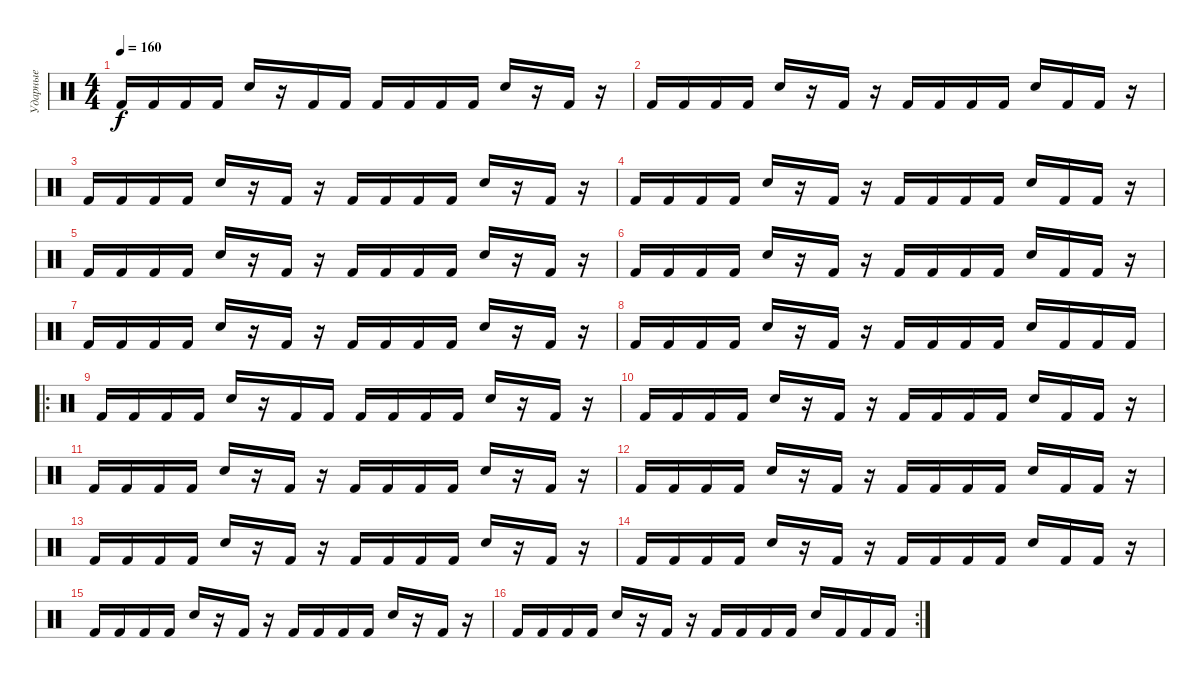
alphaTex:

\track ("Ударные" "Ударные") {instrument percussion}
\staff {score}
\articulation defaults
\ts (4 4)
\tempo 160
\clef neutral
\ks c "Kick (hit) 2".16{dy f} "Kick (hit) 2".16 "Kick (hit) 2".16 "Kick (hit) 2".16 "Electric Snare (hit)".16
r.16 "Kick (hit) 2".16 "Kick (hit) 2".16 "Kick (hit) 2".16 "Kick (hit) 2".16 "Kick (hit) 2".16 "Kick (hit) 2".16 "Electric Snare (hit)".16 r.16 "Kick (hit) 2".16 r.16 |
"Kick (hit) 2".16 "Kick (hit) 2".16 "Kick (hit) 2".16 "Kick (hit) 2".16 "Electric Snare (hit)".16 r.16 "Kick (hit) 2".16 r.16 "Kick (hit) 2".16 "Kick (hit) 2".16 "Kick (hit) 2".16 "Kick (hit) 2".16 "Electric Snare (hit)".16 "Kick (hit) 2".16 "Kick (hit) 2".16 r.16 |
"Kick (hit) 2".16 "Kick (hit) 2".16 "Kick (hit) 2".16 "Kick (hit) 2".16 "Electric Snare (hit)".16 r.16 "Kick (hit) 2".16 r.16 "Kick (hit) 2".16 "Kick (hit) 2".16 "Kick (hit) 2".16 "Kick (hit) 2".16 "Electric Snare (hit)".16 r.16 "Kick (hit) 2".16 r.16 |
"Kick (hit) 2".16 "Kick (hit) 2".16 "Kick (hit) 2".16 "Kick (hit) 2".16 "Electric Snare (hit)".16 r.16 "Kick (hit) 2".16 r.16 "Kick (hit) 2".16 "Kick (hit) 2".16 "Kick (hit) 2".16 "Kick (hit) 2".16 "Electric Snare (hit)".16 "Kick (hit) 2".16 "Kick (hit) 2".16 r.16 |
"Kick (hit) 2".16 "Kick (hit) 2".16 "Kick (hit) 2".16 "Kick (hit) 2".16 "Electric Snare (hit)".16 r.16 "Kick (hit) 2".16 r.16 "Kick (hit) 2".16 "Kick (hit) 2".16 "Kick (hit) 2".16 "Kick (hit) 2".16 "Electric Snare (hit)".16 r.16 "Kick (hit) 2".16 r.16 |
"Kick (hit) 2".16 "Kick (hit) 2".16 "Kick (hit) 2".16 "Kick (hit) 2".16 "Electric Snare (hit)".16 r.16 "Kick (hit) 2".16 r.16 "Kick (hit) 2".16 "Kick (hit) 2".16 "Kick (hit) 2".16 "Kick (hit) 2".16 "Electric Snare (hit)".16 "Kick (hit) 2".16 "Kick (hit) 2".16 r.16 |
"Kick (hit) 2".16 "Kick (hit) 2".16 "Kick (hit) 2".16 "Kick (hit) 2".16 "Electric Snare (hit)".16 r.16 "Kick (hit) 2".16 r.16 "Kick (hit) 2".16 "Kick (hit) 2".16 "Kick (hit) 2".16 "Kick (hit) 2".16 "Electric Snare (hit)".16 r.16 "Kick (hit) 2".16 r.16 |
"Kick (hit) 2".16 "Kick (hit) 2".16 "Kick (hit) 2".16 "Kick (hit) 2".16 "Electric Snare (hit)".16 r.16 "Kick (hit) 2".16 r.16 "Kick (hit) 2".16 "Kick (hit) 2".16 "Kick (hit) 2".16 "Kick (hit) 2".16 "Electric Snare (hit)".16 "Kick (hit) 2".16 "Kick (hit) 2".16 "Kick (hit) 2".16 |
\ro "Kick (hit) 2".16 "Kick (hit) 2".16 "Kick (hit) 2".16 "Kick (hit) 2".16 "Electric Snare (hit)".16
r.16 "Kick (hit) 2".16 "Kick (hit) 2".16 "Kick (hit) 2".16 "Kick (hit) 2".16 "Kick (hit) 2".16 "Kick (hit) 2".16 "Electric Snare (hit)".16 r.16 "Kick (hit) 2".16 r.16 |
"Kick (hit) 2".16 "Kick (hit) 2".16 "Kick (hit) 2".16 "Kick (hit) 2".16 "Electric Snare (hit)".16 r.16 "Kick (hit) 2".16 r.16 "Kick (hit) 2".16 "Kick (hit) 2".16 "Kick (hit) 2".16 "Kick (hit) 2".16 "Electric Snare (hit)".16 "Kick (hit) 2".16 "Kick (hit) 2".16 r.16 |
"Kick (hit) 2".16 "Kick (hit) 2".16 "Kick (hit) 2".16 "Kick (hit) 2".16 "Electric Snare (hit)".16 r.16 "Kick (hit) 2".16 r.16 "Kick (hit) 2".16 "Kick (hit) 2".16 "Kick (hit) 2".16 "Kick (hit) 2".16 "Electric Snare (hit)".16 r.16 "Kick (hit) 2".16 r.16 |
"Kick (hit) 2".16 "Kick (hit) 2".16 "Kick (hit) 2".16 "Kick (hit) 2".16 "Electric Snare (hit)".16 r.16 "Kick (hit) 2".16 r.16 "Kick (hit) 2".16 "Kick (hit) 2".16 "Kick (hit) 2".16 "Kick (hit) 2".16 "Electric Snare (hit)".16 "Kick (hit) 2".16 "Kick (hit) 2".16 r.16 |
"Kick (hit) 2".16 "Kick (hit) 2".16 "Kick (hit) 2".16 "Kick (hit) 2".16 "Electric Snare (hit)".16 r.16 "Kick (hit) 2".16 r.16 "Kick (hit) 2".16 "Kick (hit) 2".16 "Kick (hit) 2".16 "Kick (hit) 2".16 "Electric Snare (hit)".16 r.16 "Kick (hit) 2".16 r.16 |
"Kick (hit) 2".16 "Kick (hit) 2".16 "Kick (hit) 2".16 "Kick (hit) 2".16 "Electric Snare (hit)".16 r.16 "Kick (hit) 2".16 r.16 "Kick (hit) 2".16 "Kick (hit) 2".16 "Kick (hit) 2".16 "Kick (hit) 2".16 "Electric Snare (hit)".16 "Kick (hit) 2".16 "Kick (hit) 2".16 r.16 |
"Kick (hit) 2".16 "Kick (hit) 2".16 "Kick (hit) 2".16 "Kick (hit) 2".16 "Electric Snare (hit)".16 r.16 "Kick (hit) 2".16 r.16 "Kick (hit) 2".16 "Kick (hit) 2".16 "Kick (hit) 2".16 "Kick (hit) 2".16 "Electric Snare (hit)".16 r.16 "Kick (hit) 2".16 r.16 |
\rc 2 "Kick (hit) 2".16 "Kick (hit) 2".16 "Kick (hit) 2".16 "Kick (hit) 2".16 "Electric Snare (hit)".16
r.16 "Kick (hit) 2".16 r.16 "Kick (hit) 2".16 "Kick (hit) 2".16 "Kick (hit) 2".16 "Kick (hit) 2".16 "Electric Snare (hit)".16 "Kick (hit) 2".16 "Kick (hit) 2".16 "Kick (hit) 2".16
